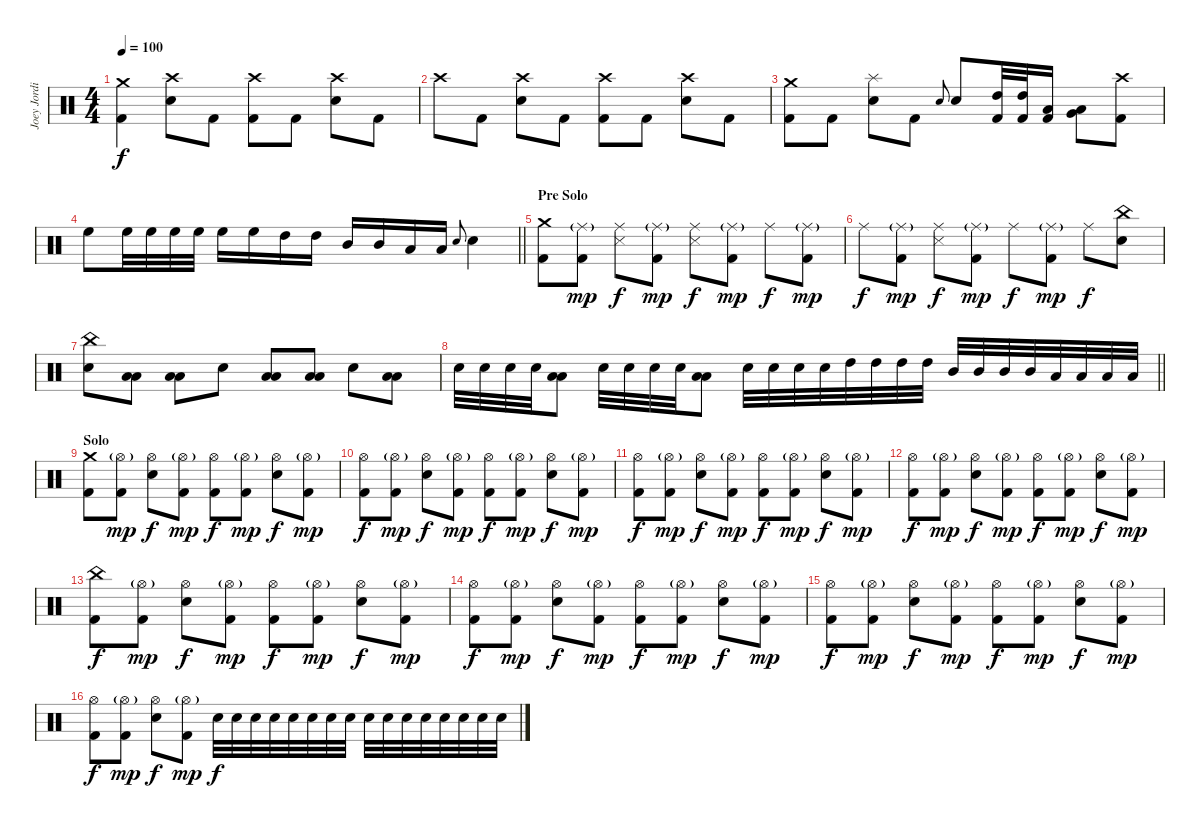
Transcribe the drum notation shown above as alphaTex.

\track ("Joey Jordison" "Joey Jordi") {instrument percussion}
\staff {score}
\articulation defaults
\ts (4 4)
\tempo 100
\clef neutral
\ks c
("Crash medium (hit)" "Kick (hit) 2").4{dy f} ("Crash high (hit)" "Electric Snare (hit)").8 "Kick (hit) 2".8 ("Crash high (hit)" "Kick (hit) 2").8 "Kick (hit) 2".8 ("Crash high (hit)" "Electric Snare (hit)").8 "Kick (hit) 2".8 |
"Crash high (hit)".8 "Kick (hit) 2".8 ("Crash high (hit)" "Electric Snare (hit)").8 "Kick (hit) 2".8 ("Crash high (hit)" "Kick (hit) 2").8 "Kick (hit) 2".8 ("Crash high (hit)" "Electric Snare (hit)").8 "Kick (hit) 2".8 |
("Crash medium (hit)" "Kick (hit) 2").8 "Kick (hit) 2".8 ("Splash (hit)" "Electric Snare (hit)").8 "Kick (hit) 2".8 "Electric Snare (hit)".8{gr onbeat} "Electric Snare (hit)".8 ("High Tom (hit)" "Kick (hit) 2").32 ("High Tom (hit)" "Kick (hit) 2").32 ("Low Tom (hit)" "Kick (hit) 2").16 ("Very Low Tom (hit)" "Low Floor Tom (hit)").8 ("Crash high (hit)" "Kick (hit) 2").8 |
\barLineRight lightlight "High Floor Tom (hit)".8 "High Floor Tom (hit)".32 "High Floor Tom (hit)".32 "High Floor Tom (hit)".32 "High Floor Tom (hit)".32 "High Floor Tom (hit)".16 "High Floor Tom (hit)".16 "High Tom (hit)".16 "High Tom (hit)".16 "Mid Tom (hit)".16 "Mid Tom (hit)".16 "Low Tom (hit)".16 "Low Tom (hit)".16 "Electric Snare (hit)".8{gr onbeat} "Electric Snare (hit)".4
|
\section ("" "Pre Solo")
("Crash medium (hit)" "Kick (hit) 2").8 ("Ride (middle)"{g} "Kick (hit) 2").8{dy mp} ("Ride (middle)" "Snare (side stick) 3").8{dy f} ("Ride (middle)"{g} "Kick (hit) 2").8{dy mp} ("Ride (middle)" "Snare (side stick) 3").8{dy f} ("Ride (middle)"{g} "Kick (hit) 2").8{dy mp} "Ride (middle)".8{dy f} ("Ride (middle)"{g} "Kick (hit) 2").8{dy mp} |
"Ride (middle)".8{dy f} ("Ride (middle)"{g} "Kick (hit) 2").8{dy mp} ("Ride (middle)" "Snare (side stick) 3").8{dy f} ("Ride (middle)"{g} "Kick (hit) 2").8{dy mp} "Ride (middle)".8{dy f} ("Ride (middle)"{g} "Kick (hit) 2").8{dy mp} "Ride (middle)".8{dy f} ("China (hit)" "Electric Snare (hit)").8 |
("China (hit)" "Electric Snare (hit)").8 ("Low Tom (hit)" "Low Floor Tom (hit)").8 ("Low Tom (hit)" "Low Floor Tom (hit)").8 "Electric Snare (hit)".8 ("Low Tom (hit)" "Low Floor Tom (hit)").8 ("Low Tom (hit)" "Low Floor Tom (hit)").8 "Electric Snare (hit)".8 ("Low Tom (hit)" "Low Floor Tom (hit)").8 |
\barLineRight lightlight "Electric Snare (hit)".32 "Electric Snare (hit)".32 "Electric Snare (hit)".32 "Electric Snare (hit)".32
("Low Tom (hit)" "Low Floor Tom (hit)").8 "Electric Snare (hit)".32 "Electric Snare (hit)".32 "Electric Snare (hit)".32 "Electric Snare (hit)".32 ("Low Tom (hit)" "Low Floor Tom (hit)").8 "Electric Snare (hit)".32 "Electric Snare (hit)".32 "Electric Snare (hit)".32 "Electric Snare (hit)".32 "High Tom (hit)".32 "High Tom (hit)".32 "High Tom (hit)".32 "High Tom (hit)".32 "Mid Tom (hit)".32 "Mid Tom (hit)".32 "Mid Tom (hit)".32 "Mid Tom (hit)".32 "Low Tom (hit)".32 "Low Tom (hit)".32 "Low Tom (hit)".32 "Low Tom (hit)".32 |
\section ("" "Solo")
("Crash medium (hit)" "Kick (hit) 2").8 ("Hi-Hat (open)"{g} "Kick (hit) 2").8{dy mp} ("Hi-Hat (open)" "Electric Snare (hit)").8{dy f} ("Hi-Hat (open)"{g} "Kick (hit) 2").8{dy mp} ("Hi-Hat (open)" "Kick (hit) 2").8{dy f} ("Hi-Hat (open)"{g} "Kick (hit) 2").8{dy mp} ("Hi-Hat (open)" "Electric Snare (hit)").8{dy f} ("Hi-Hat (open)"{g} "Kick (hit) 2").8{dy mp} |
("Hi-Hat (open)" "Kick (hit) 2").8{dy f} ("Hi-Hat (open)"{g} "Kick (hit) 2").8{dy mp} ("Hi-Hat (open)" "Electric Snare (hit)").8{dy f} ("Hi-Hat (open)"{g} "Kick (hit) 2").8{dy mp} ("Hi-Hat (open)" "Kick (hit) 2").8{dy f} ("Hi-Hat (open)"{g} "Kick (hit) 2").8{dy mp} ("Hi-Hat (open)" "Electric Snare (hit)").8{dy f} ("Hi-Hat (open)"{g} "Kick (hit) 2").8{dy mp} |
("Hi-Hat (open)" "Kick (hit) 2").8{dy f} ("Hi-Hat (open)"{g} "Kick (hit) 2").8{dy mp} ("Hi-Hat (open)" "Electric Snare (hit)").8{dy f} ("Hi-Hat (open)"{g} "Kick (hit) 2").8{dy mp} ("Hi-Hat (open)" "Kick (hit) 2").8{dy f} ("Hi-Hat (open)"{g} "Kick (hit) 2").8{dy mp} ("Hi-Hat (open)" "Electric Snare (hit)").8{dy f} ("Hi-Hat (open)"{g} "Kick (hit) 2").8{dy mp} |
("Hi-Hat (open)" "Kick (hit) 2").8{dy f} ("Hi-Hat (open)"{g} "Kick (hit) 2").8{dy mp} ("Hi-Hat (open)" "Electric Snare (hit)").8{dy f} ("Hi-Hat (open)"{g} "Kick (hit) 2").8{dy mp} ("Hi-Hat (open)" "Kick (hit) 2").8{dy f} ("Hi-Hat (open)"{g} "Kick (hit) 2").8{dy mp} ("Hi-Hat (open)" "Electric Snare (hit)").8{dy f} ("Hi-Hat (open)"{g} "Kick (hit) 2").8{dy mp} |
("China (hit)" "Kick (hit) 2").8{dy f} ("Hi-Hat (open)"{g} "Kick (hit) 2").8{dy mp} ("Hi-Hat (open)" "Electric Snare (hit)").8{dy f} ("Hi-Hat (open)"{g} "Kick (hit) 2").8{dy mp} ("Hi-Hat (open)" "Kick (hit) 2").8{dy f} ("Hi-Hat (open)"{g} "Kick (hit) 2").8{dy mp} ("Hi-Hat (open)" "Electric Snare (hit)").8{dy f} ("Hi-Hat (open)"{g} "Kick (hit) 2").8{dy mp} |
("Hi-Hat (open)" "Kick (hit) 2").8{dy f} ("Hi-Hat (open)"{g} "Kick (hit) 2").8{dy mp} ("Hi-Hat (open)" "Electric Snare (hit)").8{dy f} ("Hi-Hat (open)"{g} "Kick (hit) 2").8{dy mp} ("Hi-Hat (open)" "Kick (hit) 2").8{dy f} ("Hi-Hat (open)"{g} "Kick (hit) 2").8{dy mp} ("Hi-Hat (open)" "Electric Snare (hit)").8{dy f} ("Hi-Hat (open)"{g} "Kick (hit) 2").8{dy mp} |
("Hi-Hat (open)" "Kick (hit) 2").8{dy f} ("Hi-Hat (open)"{g} "Kick (hit) 2").8{dy mp} ("Hi-Hat (open)" "Electric Snare (hit)").8{dy f} ("Hi-Hat (open)"{g} "Kick (hit) 2").8{dy mp} ("Hi-Hat (open)" "Kick (hit) 2").8{dy f} ("Hi-Hat (open)"{g} "Kick (hit) 2").8{dy mp} ("Hi-Hat (open)" "Electric Snare (hit)").8{dy f} ("Hi-Hat (open)"{g} "Kick (hit) 2").8{dy mp} |
("Hi-Hat (open)" "Kick (hit) 2").8{dy f} ("Hi-Hat (open)"{g} "Kick (hit) 2").8{dy mp} ("Hi-Hat (open)" "Electric Snare (hit)").8{dy f} ("Hi-Hat (open)"{g} "Kick (hit) 2").8{dy mp} "Electric Snare (hit)".32{dy f} "Electric Snare (hit)".32 "Electric Snare (hit)".32 "Electric Snare (hit)".32 "Electric Snare (hit)".32 "Electric Snare (hit)".32 "Electric Snare (hit)".32 "Electric Snare (hit)".32 "Electric Snare (hit)".32 "Electric Snare (hit)".32 "Electric Snare (hit)".32 "Electric Snare (hit)".32 "Electric Snare (hit)".32 "Electric Snare (hit)".32 "Electric Snare (hit)".32 "Electric Snare (hit)".32
